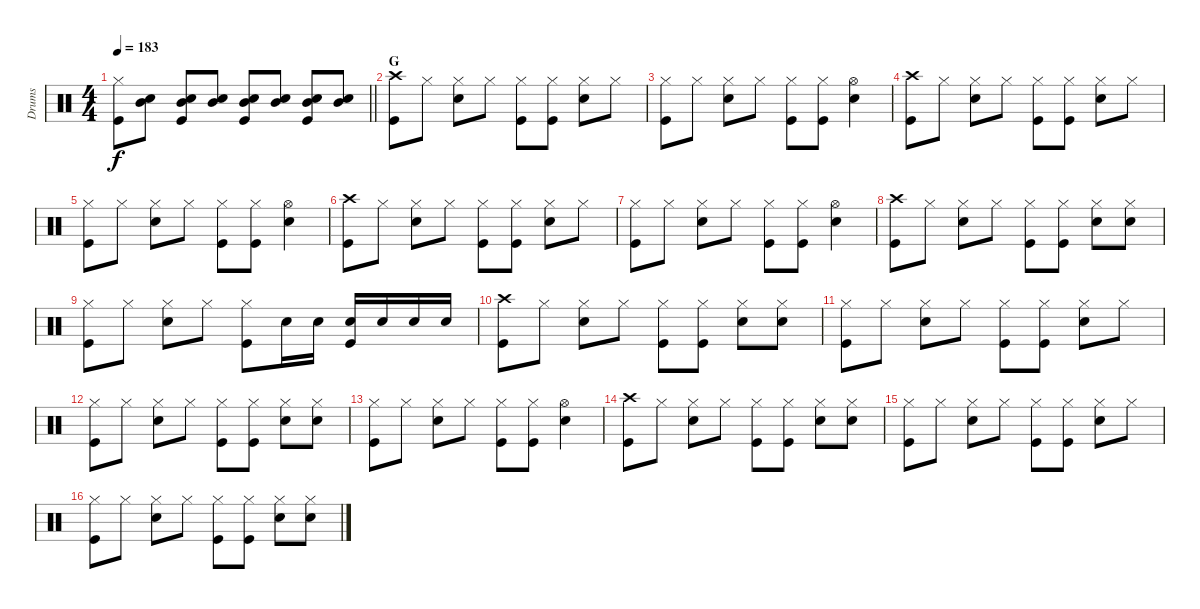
\track ("Drums" "Drums") {instrument percussion}
\staff {score}
\articulation defaults
\ts (4 4)
\tempo 183
\clef neutral
\barLineRight lightlight
\ks c
("Hi-Hat (closed)" "Kick (hit)").8{dy f} ("Mid Tom (hit)" "Electric Snare (hit)").8 ("Mid Tom (hit)" "Electric Snare (hit)" "Kick (hit)").8 ("Mid Tom (hit)" "Electric Snare (hit)").8 ("Mid Tom (hit)" "Electric Snare (hit)" "Kick (hit)").8 ("Mid Tom (hit)" "Electric Snare (hit)").8 ("Mid Tom (hit)" "Electric Snare (hit)" "Kick (hit)").8 ("Mid Tom (hit)" "Electric Snare (hit)").8 |
\section ("" "G")
("Crash high (hit)" "Kick (hit)").8 "Hi-Hat (closed)".8 ("Hi-Hat (closed)" "Electric Snare (hit)").8 "Hi-Hat (closed)".8 ("Hi-Hat (closed)" "Kick (hit)").8 ("Hi-Hat (closed)" "Kick (hit)").8 ("Hi-Hat (closed)" "Electric Snare (hit)").8 "Hi-Hat (closed)".8 |
("Hi-Hat (closed)" "Kick (hit)").8 "Hi-Hat (closed)".8 ("Hi-Hat (closed)" "Electric Snare (hit)").8 "Hi-Hat (closed)".8 ("Hi-Hat (closed)" "Kick (hit)").8 ("Hi-Hat (closed)" "Kick (hit)").8 ("Hi-Hat (open)" "Electric Snare (hit)").4 |
("Crash high (hit)" "Kick (hit)").8 "Hi-Hat (closed)".8 ("Hi-Hat (closed)" "Electric Snare (hit)").8 "Hi-Hat (closed)".8 ("Hi-Hat (closed)" "Kick (hit)").8 ("Hi-Hat (closed)" "Kick (hit)").8 ("Hi-Hat (closed)" "Electric Snare (hit)").8 "Hi-Hat (closed)".8 |
("Hi-Hat (closed)" "Kick (hit)").8 "Hi-Hat (closed)".8 ("Hi-Hat (closed)" "Electric Snare (hit)").8 "Hi-Hat (closed)".8 ("Hi-Hat (closed)" "Kick (hit)").8 ("Hi-Hat (closed)" "Kick (hit)").8 ("Hi-Hat (open)" "Electric Snare (hit)").4 |
("Crash high (hit)" "Kick (hit)").8 "Hi-Hat (closed)".8 ("Hi-Hat (closed)" "Electric Snare (hit)").8 "Hi-Hat (closed)".8 ("Hi-Hat (closed)" "Kick (hit)").8 ("Hi-Hat (closed)" "Kick (hit)").8 ("Hi-Hat (closed)" "Electric Snare (hit)").8 "Hi-Hat (closed)".8 |
("Hi-Hat (closed)" "Kick (hit)").8 "Hi-Hat (closed)".8 ("Hi-Hat (closed)" "Electric Snare (hit)").8 "Hi-Hat (closed)".8 ("Hi-Hat (closed)" "Kick (hit)").8 ("Hi-Hat (closed)" "Kick (hit)").8 ("Hi-Hat (open)" "Electric Snare (hit)").4 |
("Crash high (hit)" "Kick (hit)").8 "Hi-Hat (closed)".8 ("Hi-Hat (closed)" "Electric Snare (hit)").8 "Hi-Hat (closed)".8 ("Hi-Hat (closed)" "Kick (hit)").8 ("Hi-Hat (closed)" "Kick (hit)").8 ("Hi-Hat (closed)" "Electric Snare (hit)").8 ("Hi-Hat (closed)" "Electric Snare (hit)").8 |
("Hi-Hat (closed)" "Kick (hit)").8 "Hi-Hat (closed)".8 ("Hi-Hat (closed)" "Electric Snare (hit)").8 "Hi-Hat (closed)".8 ("Hi-Hat (closed)" "Kick (hit)").8 "Electric Snare (hit)".16 "Electric Snare (hit)".16 ("Electric Snare (hit)" "Kick (hit)").16 "Electric Snare (hit)".16 "Electric Snare (hit)".16 "Electric Snare (hit)".16 |
("Crash high (hit)" "Kick (hit)").8 "Hi-Hat (closed)".8 ("Hi-Hat (closed)" "Electric Snare (hit)").8 "Hi-Hat (closed)".8 ("Hi-Hat (closed)" "Kick (hit)").8 ("Hi-Hat (closed)" "Kick (hit)").8 ("Hi-Hat (closed)" "Electric Snare (hit)").8 ("Hi-Hat (closed)" "Electric Snare (hit)").8 |
("Hi-Hat (closed)" "Kick (hit)").8 "Hi-Hat (closed)".8 ("Hi-Hat (closed)" "Electric Snare (hit)").8 "Hi-Hat (closed)".8 ("Hi-Hat (closed)" "Kick (hit)").8 ("Hi-Hat (closed)" "Kick (hit)").8 ("Hi-Hat (closed)" "Electric Snare (hit)").8 "Hi-Hat (closed)".8 |
("Hi-Hat (closed)" "Kick (hit)").8 "Hi-Hat (closed)".8 ("Hi-Hat (closed)" "Electric Snare (hit)").8 "Hi-Hat (closed)".8 ("Hi-Hat (closed)" "Kick (hit)").8 ("Hi-Hat (closed)" "Kick (hit)").8 ("Hi-Hat (closed)" "Electric Snare (hit)").8 ("Hi-Hat (closed)" "Electric Snare (hit)").8 |
("Hi-Hat (closed)" "Kick (hit)").8 "Hi-Hat (closed)".8 ("Hi-Hat (closed)" "Electric Snare (hit)").8 "Hi-Hat (closed)".8 ("Hi-Hat (closed)" "Kick (hit)").8 ("Hi-Hat (closed)" "Kick (hit)").8 ("Hi-Hat (open)" "Electric Snare (hit)").4 |
("Crash high (hit)" "Kick (hit)").8 "Hi-Hat (closed)".8 ("Hi-Hat (closed)" "Electric Snare (hit)").8 "Hi-Hat (closed)".8 ("Hi-Hat (closed)" "Kick (hit)").8 ("Hi-Hat (closed)" "Kick (hit)").8 ("Hi-Hat (closed)" "Electric Snare (hit)").8 ("Hi-Hat (closed)" "Electric Snare (hit)").8 |
("Hi-Hat (closed)" "Kick (hit)").8 "Hi-Hat (closed)".8 ("Hi-Hat (closed)" "Electric Snare (hit)").8 "Hi-Hat (closed)".8 ("Hi-Hat (closed)" "Kick (hit)").8 ("Hi-Hat (closed)" "Kick (hit)").8 ("Hi-Hat (closed)" "Electric Snare (hit)").8 "Hi-Hat (closed)".8 |
("Hi-Hat (closed)" "Kick (hit)").8 "Hi-Hat (closed)".8 ("Hi-Hat (closed)" "Electric Snare (hit)").8 "Hi-Hat (closed)".8 ("Hi-Hat (closed)" "Kick (hit)").8 ("Hi-Hat (closed)" "Kick (hit)").8 ("Hi-Hat (closed)" "Electric Snare (hit)").8 ("Hi-Hat (closed)" "Electric Snare (hit)").8
